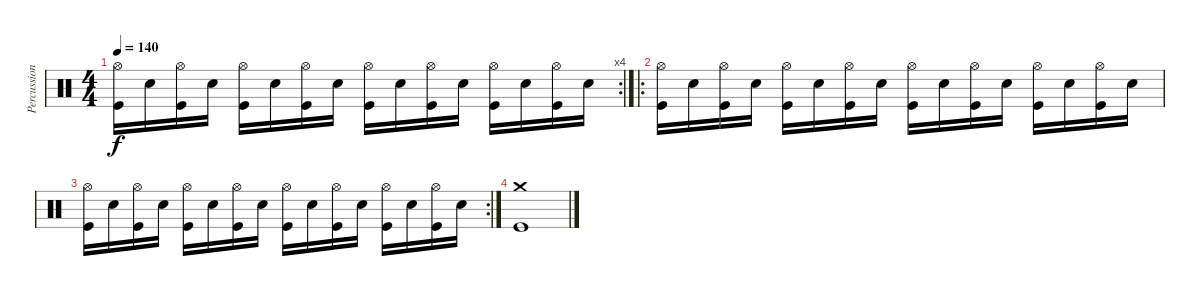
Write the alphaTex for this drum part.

\track ("Percussion" "Percussion") {instrument percussion}
\staff {score}
\articulation defaults
\rc 4
\ts (4 4)
\tempo 140
\clef neutral
\ks c
("Hi-Hat (open)" "Kick (hit)").16{dy f} "Snare (hit) 2".16 ("Hi-Hat (open)" "Kick (hit)").16 "Snare (hit) 2".16 ("Hi-Hat (open)" "Kick (hit)").16 "Snare (hit) 2".16 ("Hi-Hat (open)" "Kick (hit)").16 "Snare (hit) 2".16 ("Hi-Hat (open)" "Kick (hit)").16 "Snare (hit) 2".16 ("Hi-Hat (open)" "Kick (hit)").16 "Snare (hit) 2".16 ("Hi-Hat (open)" "Kick (hit)").16 "Snare (hit) 2".16 ("Hi-Hat (open)" "Kick (hit)").16 "Snare (hit) 2".16 |
\ro
("Hi-Hat (open)" "Kick (hit)").16 "Snare (hit) 2".16 ("Hi-Hat (open)" "Kick (hit)").16 "Snare (hit) 2".16 ("Hi-Hat (open)" "Kick (hit)").16 "Snare (hit) 2".16 ("Hi-Hat (open)" "Kick (hit)").16 "Snare (hit) 2".16 ("Hi-Hat (open)" "Kick (hit)").16 "Snare (hit) 2".16 ("Hi-Hat (open)" "Kick (hit)").16 "Snare (hit) 2".16 ("Hi-Hat (open)" "Kick (hit)").16 "Snare (hit) 2".16 ("Hi-Hat (open)" "Kick (hit)").16 "Snare (hit) 2".16 |
\rc 2
("Hi-Hat (open)" "Kick (hit)").16 "Snare (hit) 2".16 ("Hi-Hat (open)" "Kick (hit)").16 "Snare (hit) 2".16 ("Hi-Hat (open)" "Kick (hit)").16 "Snare (hit) 2".16 ("Hi-Hat (open)" "Kick (hit)").16 "Snare (hit) 2".16 ("Hi-Hat (open)" "Kick (hit)").16 "Snare (hit) 2".16 ("Hi-Hat (open)" "Kick (hit)").16 "Snare (hit) 2".16 ("Hi-Hat (open)" "Kick (hit)").16 "Snare (hit) 2".16 ("Hi-Hat (open)" "Kick (hit)").16 "Snare (hit) 2".16 |
("Crash medium (hit)" "Kick (hit)").1
